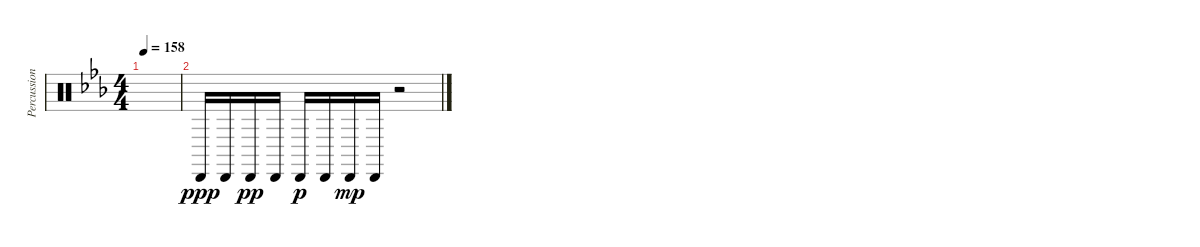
\track ("Percussion" "Percussion") {instrument percussion}
\staff {score}
\articulation defaults
\ts (4 4)
\tempo 158
\clef neutral
\ks eb
|
"Cabasa (hit)".16{dy ppp} "Cabasa (hit)".16 "Cabasa (hit)".16{dy pp} "Cabasa (hit)".16 "Cabasa (hit)".16{dy p} "Cabasa (hit)".16 "Cabasa (hit)".16{dy mp} "Cabasa (hit)".16 r.2
